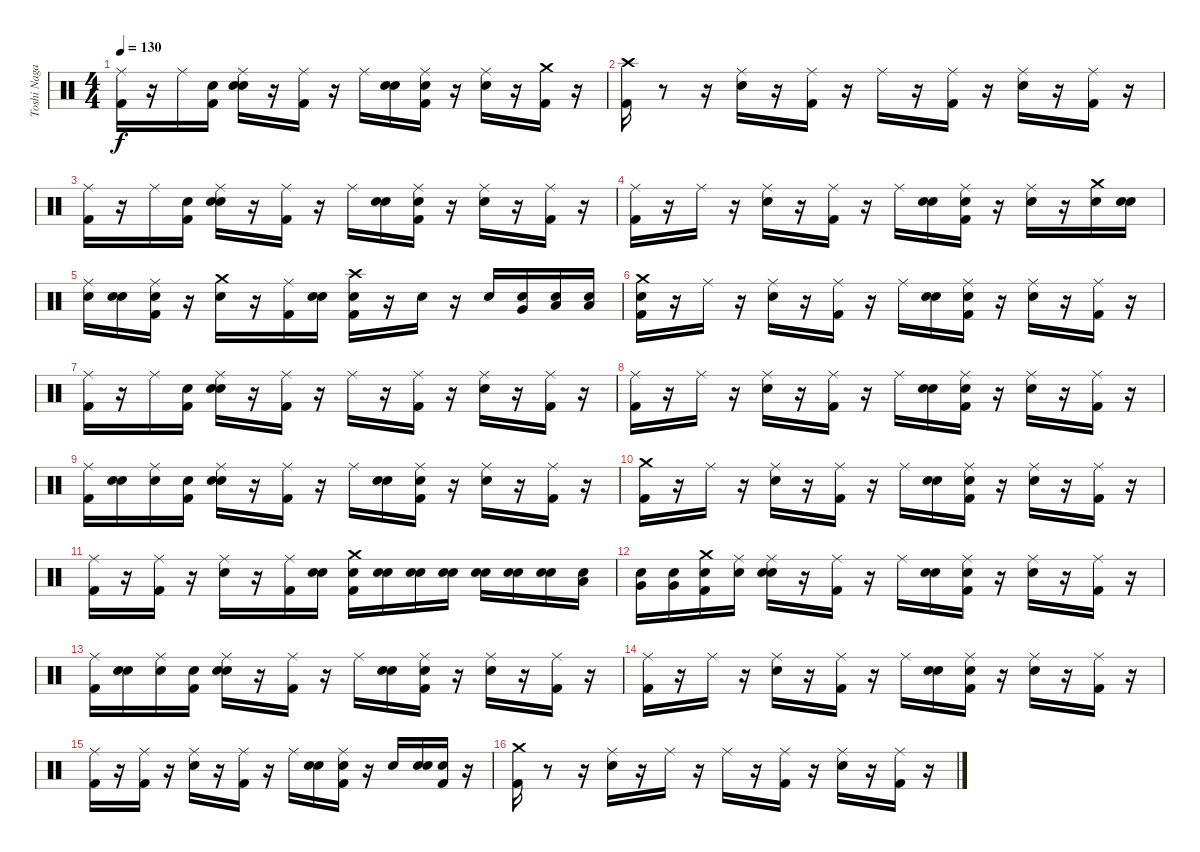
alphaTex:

\track ("Toshi Nagai" "Toshi Naga") {instrument percussion}
\staff {score}
\articulation defaults
\ts (4 4)
\tempo 130
\clef neutral
\ks c
("Kick (hit) 2" "Ride (middle)").16{dy f} r.16 "Ride (middle)".16 ("Snare (hit)" "Kick (hit) 2").16 ("Snare (hit)" "Ride (middle)" "Electric Snare (hit)").16 r.16 ("Ride (middle)" "Kick (hit) 2").16 r.16 "Ride (middle)".16 ("Snare (hit)" "Electric Snare (hit)").16 ("Snare (hit)" "Ride (middle)" "Kick (hit) 2").16 r.16 ("Ride (middle)" "Electric Snare (hit)").16 r.16 ("Crash medium (hit)" "Kick (hit) 2").16 r.16 |
("Kick (hit) 2" "Crash high (hit)").16 r.8 r.16 ("Electric Snare (hit)" "Ride (middle)").16 r.16 ("Kick (hit) 2" "Ride (middle)").16 r.16 "Ride (middle)".16 r.16 ("Kick (hit) 2" "Ride (middle)").16 r.16 ("Electric Snare (hit)" "Ride (middle)").16 r.16 ("Kick (hit) 2" "Ride (middle)").16 r.16 |
("Kick (hit) 2" "Ride (middle)").16 r.16 "Ride (middle)".16 ("Snare (hit)" "Kick (hit) 2").16 ("Snare (hit)" "Ride (middle)" "Electric Snare (hit)").16 r.16 ("Ride (middle)" "Kick (hit) 2").16 r.16 "Ride (middle)".16 ("Snare (hit)" "Electric Snare (hit)").16 ("Snare (hit)" "Ride (middle)" "Kick (hit) 2").16 r.16 ("Ride (middle)" "Electric Snare (hit)").16 r.16 ("Ride (middle)" "Kick (hit) 2").16 r.16 |
("Kick (hit) 2" "Ride (middle)").16 r.16 "Ride (middle)".16 r.16 ("Electric Snare (hit)" "Ride (middle)").16 r.16 ("Kick (hit) 2" "Ride (middle)").16 r.16 "Ride (middle)".16 ("Snare (hit)" "Electric Snare (hit)").16 ("Snare (hit)" "Ride (middle)" "Kick (hit) 2").16 r.16 ("Electric Snare (hit)" "Ride (middle)").16 r.16 ("Electric Snare (hit)" "Crash medium (hit)").16 ("Snare (hit)" "Electric Snare (hit)").16 |
("Snare (hit)" "Ride (middle)").16 ("Snare (hit)" "Electric Snare (hit)").16 ("Snare (hit)" "Ride (middle)" "Kick (hit) 2").16 r.16 ("Electric Snare (hit)" "Crash medium (hit)").16 r.16 ("Ride (middle)" "Kick (hit) 2").16 ("Snare (hit)" "Electric Snare (hit)").16 ("Snare (hit)" "Crash high (hit)" "Kick (hit) 2").16 r.16 "Electric Snare (hit)".16 r.16 "Electric Snare (hit)".16 ("Snare (hit)" "Very Low Tom (hit)").16 ("Snare (hit)" "Low Floor Tom (hit)").16 ("Snare (hit)" "Low Floor Tom (hit)").16 |
("Snare (hit)" "Kick (hit) 2" "Crash medium (hit)").16 r.16 "Ride (middle)".16 r.16 ("Electric Snare (hit)" "Ride (middle)").16 r.16 ("Kick (hit) 2" "Ride (middle)").16 r.16 "Ride (middle)".16 ("Snare (hit)" "Electric Snare (hit)").16 ("Snare (hit)" "Ride (middle)" "Kick (hit) 2").16 r.16 ("Ride (middle)" "Electric Snare (hit)").16 r.16 ("Ride (middle)" "Kick (hit) 2").16 r.16 |
("Kick (hit) 2" "Ride (middle)").16 r.16 "Ride (middle)".16 ("Snare (hit)" "Kick (hit) 2").16 ("Snare (hit)" "Ride (middle)" "Electric Snare (hit)").16 r.16 ("Ride (middle)" "Kick (hit) 2").16 r.16 "Ride (middle)".16 r.16 ("Kick (hit) 2" "Ride (middle)").16 r.16 ("Electric Snare (hit)" "Ride (middle)").16 r.16 ("Kick (hit) 2" "Ride (middle)").16 r.16 |
("Kick (hit) 2" "Ride (middle)").16 r.16 "Ride (middle)".16 r.16 ("Electric Snare (hit)" "Ride (middle)").16 r.16 ("Kick (hit) 2" "Ride (middle)").16 r.16 "Ride (middle)".16 ("Snare (hit)" "Electric Snare (hit)").16 ("Snare (hit)" "Ride (middle)" "Kick (hit) 2").16 r.16 ("Ride (middle)" "Electric Snare (hit)").16 r.16 ("Ride (middle)" "Kick (hit) 2").16 r.16 |
("Kick (hit) 2" "Ride (middle)").16 ("Snare (hit)" "Electric Snare (hit)").16 ("Snare (hit)" "Ride (middle)").16 ("Snare (hit)" "Kick (hit) 2").16 ("Snare (hit)" "Ride (middle)" "Electric Snare (hit)").16 r.16 ("Ride (middle)" "Kick (hit) 2").16 r.16 "Ride (middle)".16 ("Snare (hit)" "Electric Snare (hit)").16 ("Snare (hit)" "Ride (middle)" "Kick (hit) 2").16 r.16 ("Ride (middle)" "Electric Snare (hit)").16 r.16 ("Ride (middle)" "Kick (hit) 2").16 r.16 |
("Kick (hit) 2" "Crash medium (hit)").16 r.16 "Ride (middle)".16 r.16 ("Electric Snare (hit)" "Ride (middle)").16 r.16 ("Kick (hit) 2" "Ride (middle)").16 r.16 "Ride (middle)".16 ("Snare (hit)" "Electric Snare (hit)").16 ("Snare (hit)" "Ride (middle)" "Kick (hit) 2").16 r.16 ("Ride (middle)" "Electric Snare (hit)").16 r.16 ("Ride (middle)" "Kick (hit) 2").16 r.16 |
("Kick (hit) 2" "Ride (middle)").16 r.16 ("Kick (hit) 2" "Ride (middle)").16 r.16 ("Electric Snare (hit)" "Ride (middle)").16 r.16 ("Kick (hit) 2" "Ride (middle)").16 ("Snare (hit)" "Electric Snare (hit)").16 ("Snare (hit)" "Kick (hit) 2" "Crash medium (hit)").16 ("Snare (hit)" "Electric Snare (hit)").16 ("Snare (hit)" "Electric Snare (hit)").16 ("Snare (hit)" "Electric Snare (hit)").16 ("Snare (hit)" "Electric Snare (hit)").16 ("Snare (hit)" "Electric Snare (hit)").16 ("Snare (hit)" "Electric Snare (hit)").16 ("Snare (hit)" "Low Tom (hit)").16 |
("Snare (hit)" "Very Low Tom (hit)").16 ("Snare (hit)" "Very Low Tom (hit)").16 ("Snare (hit)" "Kick (hit) 2" "Crash medium (hit)").16 ("Snare (hit)" "Ride (middle)").16 ("Snare (hit)" "Electric Snare (hit)" "Ride (middle)").16 r.16 ("Kick (hit) 2" "Ride (middle)").16 r.16 "Ride (middle)".16 ("Snare (hit)" "Electric Snare (hit)").16 ("Snare (hit)" "Ride (middle)" "Kick (hit) 2").16 r.16 ("Ride (middle)" "Electric Snare (hit)").16 r.16 ("Ride (middle)" "Kick (hit) 2").16 r.16 |
("Kick (hit) 2" "Ride (middle)").16 ("Snare (hit)" "Electric Snare (hit)").16 ("Snare (hit)" "Ride (middle)").16 ("Snare (hit)" "Kick (hit) 2").16 ("Snare (hit)" "Ride (middle)" "Electric Snare (hit)").16 r.16 ("Ride (middle)" "Kick (hit) 2").16 r.16 "Ride (middle)".16 ("Snare (hit)" "Electric Snare (hit)").16 ("Snare (hit)" "Ride (middle)" "Kick (hit) 2").16 r.16 ("Ride (middle)" "Electric Snare (hit)").16 r.16 ("Ride (middle)" "Kick (hit) 2").16 r.16 |
("Kick (hit) 2" "Ride (middle)").16 r.16 "Ride (middle)".16 r.16 ("Electric Snare (hit)" "Ride (middle)").16 r.16 ("Kick (hit) 2" "Ride (middle)").16 r.16 "Ride (middle)".16 ("Snare (hit)" "Electric Snare (hit)").16 ("Snare (hit)" "Ride (middle)" "Kick (hit) 2").16 r.16 ("Ride (middle)" "Electric Snare (hit)").16 r.16 ("Ride (middle)" "Kick (hit) 2").16 r.16 |
("Kick (hit) 2" "Ride (middle)").16 r.16 ("Kick (hit) 2" "Ride (middle)").16 r.16 ("Electric Snare (hit)" "Ride (middle)").16 r.16 ("Kick (hit) 2" "Ride (middle)").16 r.16 "Ride (middle)".16 ("Snare (hit)" "Electric Snare (hit)").16 ("Snare (hit)" "Ride (middle)" "Kick (hit) 2").16 r.16 "Electric Snare (hit)".16 ("Snare (hit)" "Electric Snare (hit)").16 ("Snare (hit)" "Kick (hit) 2").16 r.16 |
("Kick (hit) 2" "Crash medium (hit)").16 r.8 r.16 ("Electric Snare (hit)" "Ride (middle)").16 r.16 "Ride (middle)".16 r.16 "Ride (middle)".16 r.16 ("Kick (hit) 2" "Ride (middle)").16 r.16 ("Electric Snare (hit)" "Ride (middle)").16 r.16 ("Kick (hit) 2" "Ride (middle)").16 r.16
